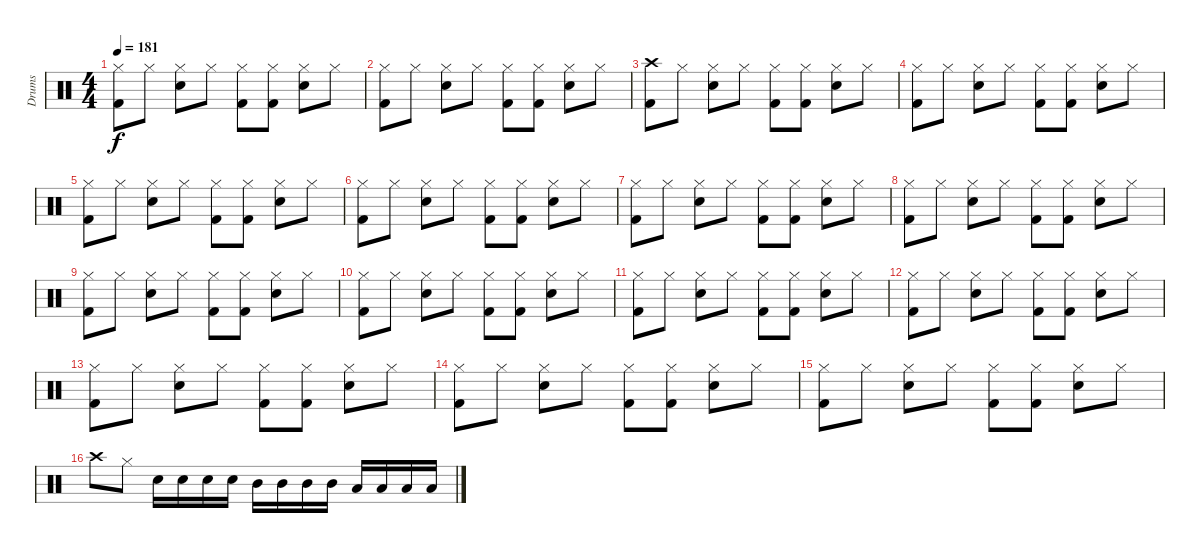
\track ("Drums" "Drums") {instrument percussion}
\staff {score}
\articulation defaults
\ts (4 4)
\tempo 181
\clef neutral
\ks c
("Hi-Hat (closed)" "Kick (hit) 2").8{dy f} "Hi-Hat (closed)".8 ("Hi-Hat (closed)" "Snare (hit) 2").8 "Hi-Hat (closed)".8 ("Hi-Hat (closed)" "Kick (hit) 2").8 ("Hi-Hat (closed)" "Kick (hit) 2").8 ("Hi-Hat (closed)" "Snare (hit) 2").8 "Hi-Hat (closed)".8 |
("Hi-Hat (closed)" "Kick (hit) 2").8 "Hi-Hat (closed)".8 ("Hi-Hat (closed)" "Snare (hit) 2").8 "Hi-Hat (closed)".8 ("Hi-Hat (closed)" "Kick (hit) 2").8 ("Hi-Hat (closed)" "Kick (hit) 2").8 ("Hi-Hat (closed)" "Snare (hit) 2").8 "Hi-Hat (closed)".8 |
("Crash high (hit)" "Kick (hit) 2").8 "Hi-Hat (closed)".8 ("Hi-Hat (closed)" "Snare (hit) 2").8 "Hi-Hat (closed)".8 ("Hi-Hat (closed)" "Kick (hit) 2").8 ("Hi-Hat (closed)" "Kick (hit) 2").8 ("Hi-Hat (closed)" "Snare (hit) 2").8 "Hi-Hat (closed)".8 |
("Hi-Hat (closed)" "Kick (hit) 2").8 "Hi-Hat (closed)".8 ("Hi-Hat (closed)" "Snare (hit) 2").8 "Hi-Hat (closed)".8 ("Hi-Hat (closed)" "Kick (hit) 2").8 ("Hi-Hat (closed)" "Kick (hit) 2").8 ("Hi-Hat (closed)" "Snare (hit) 2").8 "Hi-Hat (closed)".8 |
("Hi-Hat (closed)" "Kick (hit) 2").8 "Hi-Hat (closed)".8 ("Hi-Hat (closed)" "Snare (hit) 2").8 "Hi-Hat (closed)".8 ("Hi-Hat (closed)" "Kick (hit) 2").8 ("Hi-Hat (closed)" "Kick (hit) 2").8 ("Hi-Hat (closed)" "Snare (hit) 2").8 "Hi-Hat (closed)".8 |
("Hi-Hat (closed)" "Kick (hit) 2").8 "Hi-Hat (closed)".8 ("Hi-Hat (closed)" "Snare (hit) 2").8 "Hi-Hat (closed)".8 ("Hi-Hat (closed)" "Kick (hit) 2").8 ("Hi-Hat (closed)" "Kick (hit) 2").8 ("Hi-Hat (closed)" "Snare (hit) 2").8 "Hi-Hat (closed)".8 |
("Hi-Hat (closed)" "Kick (hit) 2").8 "Hi-Hat (closed)".8 ("Hi-Hat (closed)" "Snare (hit) 2").8 "Hi-Hat (closed)".8 ("Hi-Hat (closed)" "Kick (hit) 2").8 ("Hi-Hat (closed)" "Kick (hit) 2").8 ("Hi-Hat (closed)" "Snare (hit) 2").8 "Hi-Hat (closed)".8 |
("Hi-Hat (closed)" "Kick (hit) 2").8 "Hi-Hat (closed)".8 ("Hi-Hat (closed)" "Snare (hit) 2").8 "Hi-Hat (closed)".8 ("Hi-Hat (closed)" "Kick (hit) 2").8 ("Hi-Hat (closed)" "Kick (hit) 2").8 ("Hi-Hat (closed)" "Snare (hit) 2").8 "Hi-Hat (closed)".8 |
("Hi-Hat (closed)" "Kick (hit) 2").8 "Hi-Hat (closed)".8 ("Hi-Hat (closed)" "Snare (hit) 2").8 "Hi-Hat (closed)".8 ("Hi-Hat (closed)" "Kick (hit) 2").8 ("Hi-Hat (closed)" "Kick (hit) 2").8 ("Hi-Hat (closed)" "Snare (hit) 2").8 "Hi-Hat (closed)".8 |
("Hi-Hat (closed)" "Kick (hit) 2").8 "Hi-Hat (closed)".8 ("Hi-Hat (closed)" "Snare (hit) 2").8 "Hi-Hat (closed)".8 ("Hi-Hat (closed)" "Kick (hit) 2").8 ("Hi-Hat (closed)" "Kick (hit) 2").8 ("Hi-Hat (closed)" "Snare (hit) 2").8 "Hi-Hat (closed)".8 |
("Hi-Hat (closed)" "Kick (hit) 2").8 "Hi-Hat (closed)".8 ("Hi-Hat (closed)" "Snare (hit) 2").8 "Hi-Hat (closed)".8 ("Hi-Hat (closed)" "Kick (hit) 2").8 ("Hi-Hat (closed)" "Kick (hit) 2").8 ("Hi-Hat (closed)" "Snare (hit) 2").8 "Hi-Hat (closed)".8 |
("Hi-Hat (closed)" "Kick (hit) 2").8 "Hi-Hat (closed)".8 ("Hi-Hat (closed)" "Snare (hit) 2").8 "Hi-Hat (closed)".8 ("Hi-Hat (closed)" "Kick (hit) 2").8 ("Hi-Hat (closed)" "Kick (hit) 2").8 ("Hi-Hat (closed)" "Snare (hit) 2").8 "Hi-Hat (closed)".8 |
("Hi-Hat (closed)" "Kick (hit) 2").8 "Hi-Hat (closed)".8 ("Hi-Hat (closed)" "Snare (hit) 2").8 "Hi-Hat (closed)".8 ("Hi-Hat (closed)" "Kick (hit) 2").8 ("Hi-Hat (closed)" "Kick (hit) 2").8 ("Hi-Hat (closed)" "Snare (hit) 2").8 "Hi-Hat (closed)".8 |
("Hi-Hat (closed)" "Kick (hit) 2").8 "Hi-Hat (closed)".8 ("Hi-Hat (closed)" "Snare (hit) 2").8 "Hi-Hat (closed)".8 ("Hi-Hat (closed)" "Kick (hit) 2").8 ("Hi-Hat (closed)" "Kick (hit) 2").8 ("Hi-Hat (closed)" "Snare (hit) 2").8 "Hi-Hat (closed)".8 |
("Hi-Hat (closed)" "Kick (hit) 2").8 "Hi-Hat (closed)".8 ("Hi-Hat (closed)" "Snare (hit) 2").8 "Hi-Hat (closed)".8 ("Hi-Hat (closed)" "Kick (hit) 2").8 ("Hi-Hat (closed)" "Kick (hit) 2").8 ("Hi-Hat (closed)" "Snare (hit) 2").8 "Hi-Hat (closed)".8 |
"Crash high (hit)".8 "Hi-Hat (closed)".8 "Snare (hit) 2".16 "Snare (hit) 2".16 "Snare (hit) 2".16 "Snare (hit) 2".16 "Mid Tom (hit)".16 "Mid Tom (hit)".16 "Mid Tom (hit)".16 "Mid Tom (hit)".16 "Low Tom (hit)".16 "Low Tom (hit)".16 "Low Tom (hit)".16 "Low Tom (hit)".16
